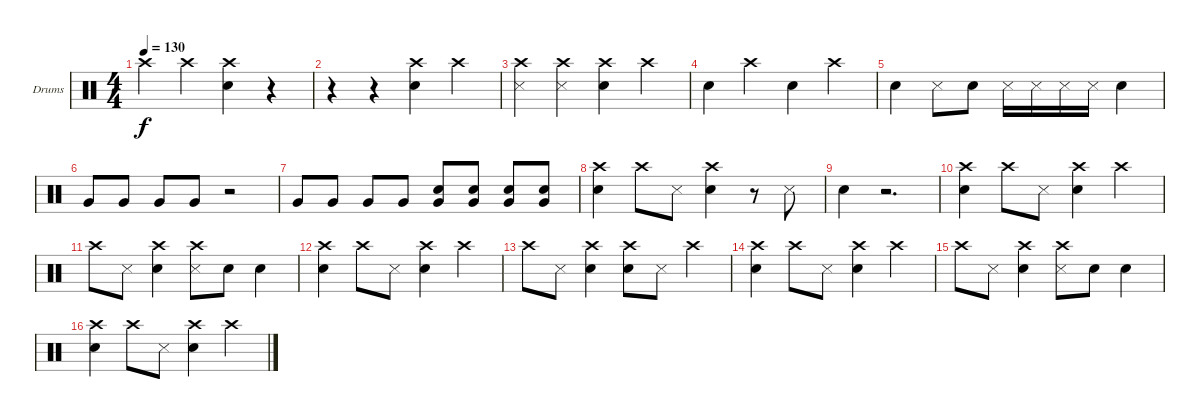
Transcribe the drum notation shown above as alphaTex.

\defaultSystemsLayout 4
\bracketExtendMode groupsimilarinstruments
\firstSystemTrackNameOrientation horizontal
\otherSystemsTrackNameOrientation horizontal
\track ("Drumkit" "Drums") {instrument percussion}
\staff {score}
\articulation defaults
\ts (4 4)
\tempo 130
\clef neutral
\ks c "Crash high (hit)".4{dy f} "Crash high (hit)".4
("Crash high (hit)" "Snare (hit) 2").4 r.4 |
r.4 r.4 ("Crash high (hit)" "Snare (hit) 2").4 "Crash high (hit)".4 |
("Crash high (hit)" "Snare (side stick) 3").4 ("Crash high (hit)" "Snare (side stick) 3").4 ("Crash high (hit)" "Snare (hit) 2").4 "Crash high (hit)".4 |
"Snare (hit) 2".4 "Crash high (hit)".4 "Snare (hit) 2".4 "Crash high (hit)".4 |
"Snare (hit) 2".4 "Snare (side stick) 3".8 "Snare (hit) 2".8 "Snare (side stick) 3".16 "Snare (side stick) 3".16 "Snare (side stick) 3".16 "Snare (side stick) 3".16 "Snare (hit) 2".4 |
"Very Low Tom (hit)".8 "Very Low Tom (hit)".8 "Very Low Tom (hit)".8 "Very Low Tom (hit)".8 r.2 |
"Very Low Tom (hit)".8 "Very Low Tom (hit)".8 "Very Low Tom (hit)".8 "Very Low Tom (hit)".8 ("Snare (hit) 2" "Very Low Tom (hit)").8 ("Snare (hit) 2" "Very Low Tom (hit)").8 ("Snare (hit) 2" "Very Low Tom (hit)").8 ("Snare (hit) 2" "Very Low Tom (hit)").8 |
("Snare (hit) 2" "Crash high (hit)").4 "Crash high (hit)".8 "Snare (side stick) 3".8 ("Snare (hit) 2" "Crash high (hit)").4 r.8 "Snare (side stick) 3".8 |
"Snare (hit) 2".4 r.2{d} |
("Snare (hit) 2" "Crash high (hit)").4 "Crash high (hit)".8 "Snare (side stick) 3".8 ("Snare (hit) 2" "Crash high (hit)").4 "Crash high (hit)".4 |
"Crash high (hit)".8 "Snare (side stick) 3".8 ("Snare (hit) 2" "Crash high (hit)").4 ("Snare (side stick) 3" "Crash high (hit)").8 "Snare (hit) 2".8 "Snare (hit) 2".4 |
("Snare (hit) 2" "Crash high (hit)").4 "Crash high (hit)".8 "Snare (side stick) 3".8 ("Snare (hit) 2" "Crash high (hit)").4 "Crash high (hit)".4 |
"Crash high (hit)".8 "Snare (side stick) 3".8 ("Snare (hit) 2" "Crash high (hit)").4 ("Snare (hit) 2" "Crash high (hit)").8 "Snare (side stick) 3".8 "Crash high (hit)".4 |
("Snare (hit) 2" "Crash high (hit)").4 "Crash high (hit)".8 "Snare (side stick) 3".8 ("Snare (hit) 2" "Crash high (hit)").4 "Crash high (hit)".4 |
"Crash high (hit)".8 "Snare (side stick) 3".8 ("Snare (hit) 2" "Crash high (hit)").4 ("Snare (side stick) 3" "Crash high (hit)").8 "Snare (hit) 2".8 "Snare (hit) 2".4 |
("Snare (hit) 2" "Crash high (hit)").4 "Crash high (hit)".8 "Snare (side stick) 3".8 ("Snare (hit) 2" "Crash high (hit)").4 "Crash high (hit)".4
